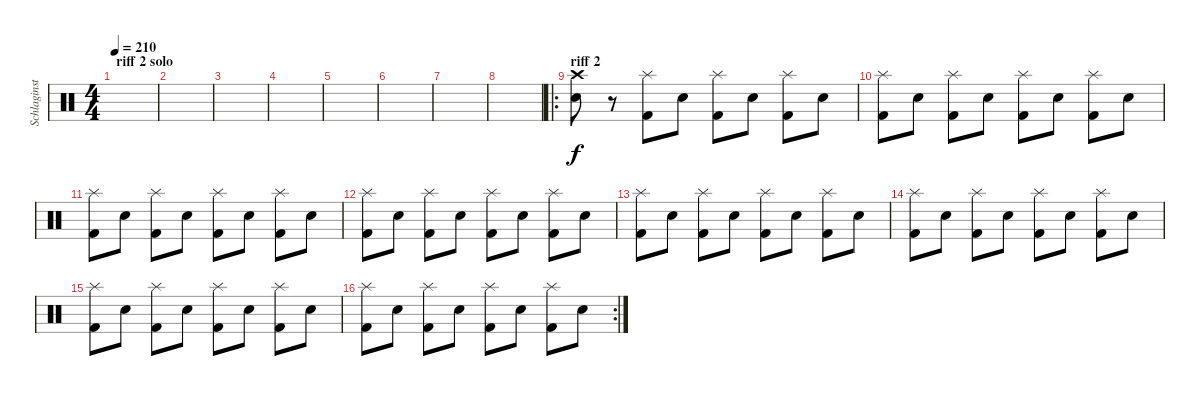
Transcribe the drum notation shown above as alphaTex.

\track ("Schlaginstrumente - Auswahl" "Schlaginst") {instrument percussion}
\staff {score}
\articulation defaults
\ts (4 4)
\section ("" "riff 2 solo")
\tempo 210
\clef neutral
\ks c
|
|
|
|
|
|
|
|
\ro
\section ("" "riff 2")
("Electric Snare (hit)" "Crash high (hit)").8 r.8 ("Splash (hit)" "Kick (hit) 2").8 "Electric Snare (hit)".8 ("Splash (hit)" "Kick (hit) 2").8 "Electric Snare (hit)".8 ("Splash (hit)" "Kick (hit) 2").8 "Electric Snare (hit)".8 |
("Splash (hit)" "Kick (hit) 2").8 "Electric Snare (hit)".8 ("Splash (hit)" "Kick (hit) 2").8 "Electric Snare (hit)".8 ("Splash (hit)" "Kick (hit) 2").8 "Electric Snare (hit)".8 ("Splash (hit)" "Kick (hit) 2").8 "Electric Snare (hit)".8 |
("Splash (hit)" "Kick (hit) 2").8 "Electric Snare (hit)".8 ("Splash (hit)" "Kick (hit) 2").8 "Electric Snare (hit)".8 ("Splash (hit)" "Kick (hit) 2").8 "Electric Snare (hit)".8 ("Splash (hit)" "Kick (hit) 2").8 "Electric Snare (hit)".8 |
("Splash (hit)" "Kick (hit) 2").8 "Electric Snare (hit)".8 ("Splash (hit)" "Kick (hit) 2").8 "Electric Snare (hit)".8 ("Splash (hit)" "Kick (hit) 2").8 "Electric Snare (hit)".8 ("Splash (hit)" "Kick (hit) 2").8 "Electric Snare (hit)".8 |
("Splash (hit)" "Kick (hit) 2").8 "Electric Snare (hit)".8 ("Splash (hit)" "Kick (hit) 2").8 "Electric Snare (hit)".8 ("Splash (hit)" "Kick (hit) 2").8 "Electric Snare (hit)".8 ("Splash (hit)" "Kick (hit) 2").8 "Electric Snare (hit)".8 |
("Splash (hit)" "Kick (hit) 2").8 "Electric Snare (hit)".8 ("Splash (hit)" "Kick (hit) 2").8 "Electric Snare (hit)".8 ("Splash (hit)" "Kick (hit) 2").8 "Electric Snare (hit)".8 ("Splash (hit)" "Kick (hit) 2").8 "Electric Snare (hit)".8 |
("Splash (hit)" "Kick (hit) 2").8 "Electric Snare (hit)".8 ("Splash (hit)" "Kick (hit) 2").8 "Electric Snare (hit)".8 ("Splash (hit)" "Kick (hit) 2").8 "Electric Snare (hit)".8 ("Splash (hit)" "Kick (hit) 2").8 "Electric Snare (hit)".8 |
\rc 2
("Splash (hit)" "Kick (hit) 2").8 "Electric Snare (hit)".8 ("Splash (hit)" "Kick (hit) 2").8 "Electric Snare (hit)".8 ("Splash (hit)" "Kick (hit) 2").8 "Electric Snare (hit)".8 ("Splash (hit)" "Kick (hit) 2").8 "Electric Snare (hit)".8
